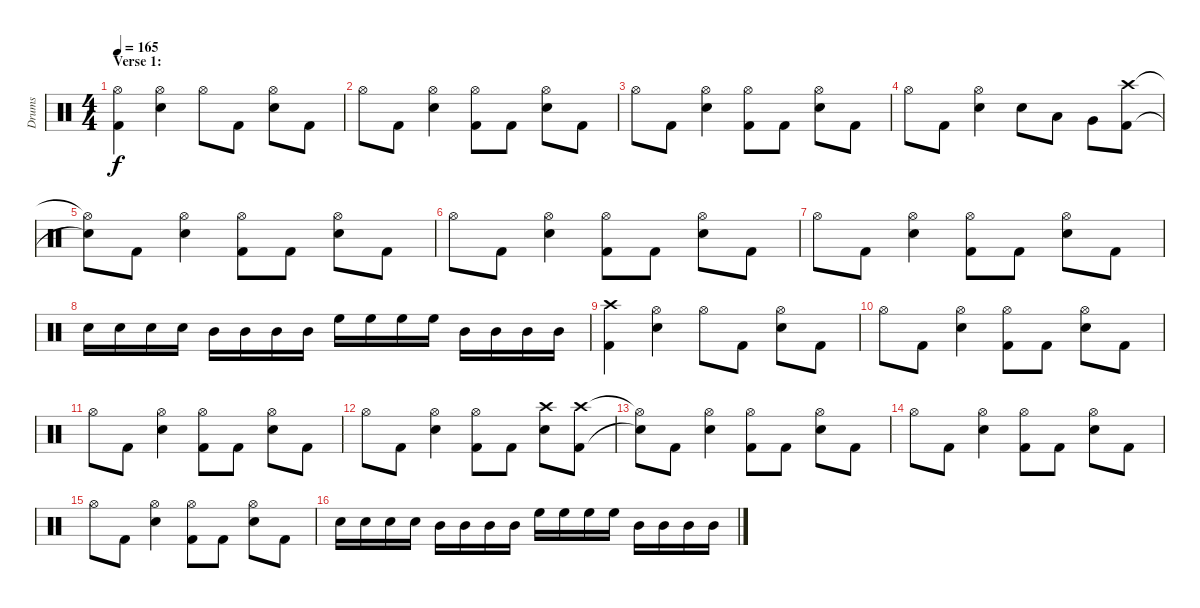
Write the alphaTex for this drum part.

\track ("Drums" "Drums") {instrument percussion}
\staff {score}
\articulation defaults
\ts (4 4)
\section ("" "Verse 1:")
\tempo 165
\clef neutral
\ks c
("Hi-Hat (open)" "Kick (hit) 2").4{dy f} ("Hi-Hat (open)" "Electric Snare (hit)").4 "Hi-Hat (open)".8 "Kick (hit) 2".8 ("Hi-Hat (open)" "Electric Snare (hit)").8 "Kick (hit) 2".8 |
"Hi-Hat (open)".8 "Kick (hit) 2".8 ("Hi-Hat (open)" "Electric Snare (hit)").4 ("Hi-Hat (open)" "Kick (hit) 2").8 "Kick (hit) 2".8 ("Hi-Hat (open)" "Electric Snare (hit)").8 "Kick (hit) 2".8 |
"Hi-Hat (open)".8 "Kick (hit) 2".8 ("Hi-Hat (open)" "Electric Snare (hit)").4 ("Hi-Hat (open)" "Kick (hit) 2").8 "Kick (hit) 2".8 ("Hi-Hat (open)" "Electric Snare (hit)").8 "Kick (hit) 2".8 |
"Hi-Hat (open)".8 "Kick (hit) 2".8 ("Hi-Hat (open)" "Electric Snare (hit)").4 "Electric Snare (hit)".8 "Low Tom (hit)".8 "Very Low Tom (hit)".8 ("Crash high (hit)" "Kick (hit) 2").8 |
("Hi-Hat (open)"{t} "Snare (hit)"{t}).8 "Kick (hit) 2".8 ("Hi-Hat (open)" "Electric Snare (hit)").4 ("Hi-Hat (open)" "Kick (hit) 2").8 "Kick (hit) 2".8 ("Hi-Hat (open)" "Electric Snare (hit)").8 "Kick (hit) 2".8 |
"Hi-Hat (open)".8 "Kick (hit) 2".8 ("Hi-Hat (open)" "Electric Snare (hit)").4 ("Hi-Hat (open)" "Kick (hit) 2").8 "Kick (hit) 2".8 ("Hi-Hat (open)" "Electric Snare (hit)").8 "Kick (hit) 2".8 |
"Hi-Hat (open)".8 "Kick (hit) 2".8 ("Hi-Hat (open)" "Electric Snare (hit)").4 ("Hi-Hat (open)" "Kick (hit) 2").8 "Kick (hit) 2".8 ("Hi-Hat (open)" "Electric Snare (hit)").8 "Kick (hit) 2".8 |
"Electric Snare (hit)".16 "Electric Snare (hit)".16 "Electric Snare (hit)".16 "Electric Snare (hit)".16 "Mid Tom (hit)".16 "Mid Tom (hit)".16 "Mid Tom (hit)".16 "Mid Tom (hit)".16 "High Floor Tom (hit)".16 "High Floor Tom (hit)".16 "High Floor Tom (hit)".16 "High Floor Tom (hit)".16 "Mid Tom (hit)".16 "Mid Tom (hit)".16 "Mid Tom (hit)".16 "Mid Tom (hit)".16 |
("Crash high (hit)" "Kick (hit) 2").4 ("Hi-Hat (open)" "Electric Snare (hit)").4 "Hi-Hat (open)".8 "Kick (hit) 2".8 ("Hi-Hat (open)" "Electric Snare (hit)").8 "Kick (hit) 2".8 |
"Hi-Hat (open)".8 "Kick (hit) 2".8 ("Hi-Hat (open)" "Electric Snare (hit)").4 ("Hi-Hat (open)" "Kick (hit) 2").8 "Kick (hit) 2".8 ("Hi-Hat (open)" "Electric Snare (hit)").8 "Kick (hit) 2".8 |
"Hi-Hat (open)".8 "Kick (hit) 2".8 ("Hi-Hat (open)" "Electric Snare (hit)").4 ("Hi-Hat (open)" "Kick (hit) 2").8 "Kick (hit) 2".8 ("Hi-Hat (open)" "Electric Snare (hit)").8 "Kick (hit) 2".8 |
"Hi-Hat (open)".8 "Kick (hit) 2".8 ("Hi-Hat (open)" "Electric Snare (hit)").4 ("Hi-Hat (open)" "Kick (hit) 2").8 "Kick (hit) 2".8 ("Crash high (hit)" "Electric Snare (hit)").8 ("Crash high (hit)" "Kick (hit) 2").8 |
("Hi-Hat (open)"{t} "Snare (hit)"{t}).8 "Kick (hit) 2".8 ("Hi-Hat (open)" "Electric Snare (hit)").4 ("Hi-Hat (open)" "Kick (hit) 2").8 "Kick (hit) 2".8 ("Hi-Hat (open)" "Electric Snare (hit)").8 "Kick (hit) 2".8 |
"Hi-Hat (open)".8 "Kick (hit) 2".8 ("Hi-Hat (open)" "Electric Snare (hit)").4 ("Hi-Hat (open)" "Kick (hit) 2").8 "Kick (hit) 2".8 ("Hi-Hat (open)" "Electric Snare (hit)").8 "Kick (hit) 2".8 |
"Hi-Hat (open)".8 "Kick (hit) 2".8 ("Hi-Hat (open)" "Electric Snare (hit)").4 ("Hi-Hat (open)" "Kick (hit) 2").8 "Kick (hit) 2".8 ("Hi-Hat (open)" "Electric Snare (hit)").8 "Kick (hit) 2".8 |
"Electric Snare (hit)".16 "Electric Snare (hit)".16 "Electric Snare (hit)".16 "Electric Snare (hit)".16 "Mid Tom (hit)".16 "Mid Tom (hit)".16 "Mid Tom (hit)".16 "Mid Tom (hit)".16 "High Floor Tom (hit)".16 "High Floor Tom (hit)".16 "High Floor Tom (hit)".16 "High Floor Tom (hit)".16 "Mid Tom (hit)".16 "Mid Tom (hit)".16 "Mid Tom (hit)".16 "Mid Tom (hit)".16
